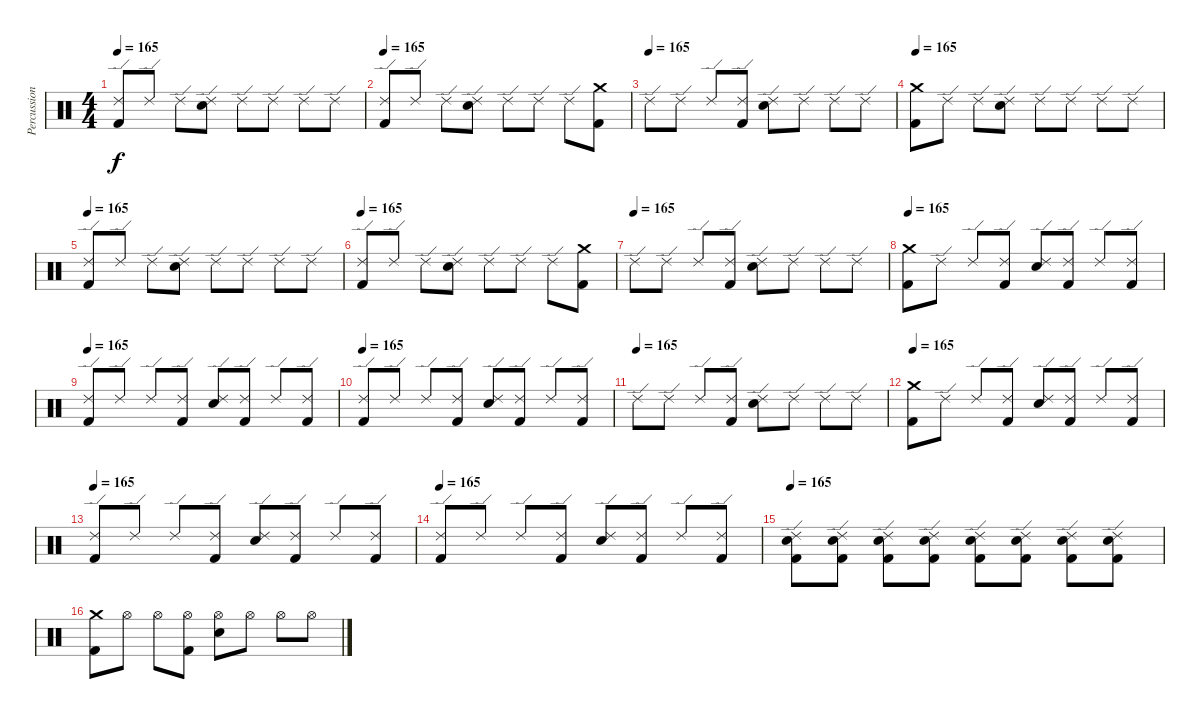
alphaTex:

\track ("Percussion" "Percussion") {instrument percussion}
\staff {score}
\articulation defaults
\ts (4 4)
\tempo 165
\clef neutral
\ks c
("Ride (edge) 2" "Kick (hit) 2").8{dy f} "Ride (edge) 2".8 "Ride (edge) 2".8 ("Ride (edge) 2" "Electric Snare (hit)").8 "Ride (edge) 2".8 "Ride (edge) 2".8 "Ride (edge) 2".8 "Ride (edge) 2".8 |
\tempo 165
("Ride (edge) 2" "Kick (hit) 2").8 "Ride (edge) 2".8 "Ride (edge) 2".8 ("Ride (edge) 2" "Electric Snare (hit)").8 "Ride (edge) 2".8 "Ride (edge) 2".8 "Ride (edge) 2".8 ("Crash medium (hit)" "Kick (hit) 2").8 |
\tempo (165)
"Ride (edge) 2".8 "Ride (edge) 2".8 "Ride (edge) 2".8 ("Ride (edge) 2" "Kick (hit) 2").8 ("Ride (edge) 2" "Electric Snare (hit)").8 "Ride (edge) 2".8 "Ride (edge) 2".8 "Ride (edge) 2".8 |
\tempo 165
("Crash medium (hit)" "Kick (hit) 2").8 "Ride (edge) 2".8 "Ride (edge) 2".8 ("Ride (edge) 2" "Electric Snare (hit)").8 "Ride (edge) 2".8 "Ride (edge) 2".8 "Ride (edge) 2".8 "Ride (edge) 2".8 |
\tempo 165
("Ride (edge) 2" "Kick (hit) 2").8 "Ride (edge) 2".8 "Ride (edge) 2".8 ("Ride (edge) 2" "Electric Snare (hit)").8 "Ride (edge) 2".8 "Ride (edge) 2".8 "Ride (edge) 2".8 "Ride (edge) 2".8 |
\tempo 165
("Ride (edge) 2" "Kick (hit) 2").8 "Ride (edge) 2".8 "Ride (edge) 2".8 ("Ride (edge) 2" "Electric Snare (hit)").8 "Ride (edge) 2".8 "Ride (edge) 2".8 "Ride (edge) 2".8 ("Crash medium (hit)" "Kick (hit) 2").8 |
\tempo (165)
"Ride (edge) 2".8 "Ride (edge) 2".8 "Ride (edge) 2".8 ("Ride (edge) 2" "Kick (hit) 2").8 ("Ride (edge) 2" "Electric Snare (hit)").8 "Ride (edge) 2".8 "Ride (edge) 2".8 "Ride (edge) 2".8 |
\tempo 165
("Crash medium (hit)" "Kick (hit) 2").8 "Ride (edge) 2".8 "Ride (edge) 2".8 ("Ride (edge) 2" "Kick (hit) 2").8 ("Ride (edge) 2" "Electric Snare (hit)").8 ("Ride (edge) 2" "Kick (hit) 2").8 "Ride (edge) 2".8 ("Ride (edge) 2" "Kick (hit) 2").8 |
\tempo 165
("Ride (edge) 2" "Kick (hit) 2").8 "Ride (edge) 2".8 "Ride (edge) 2".8 ("Ride (edge) 2" "Kick (hit) 2").8 ("Ride (edge) 2" "Electric Snare (hit)").8 ("Ride (edge) 2" "Kick (hit) 2").8 "Ride (edge) 2".8 ("Ride (edge) 2" "Kick (hit) 2").8 |
\tempo 165
("Ride (edge) 2" "Kick (hit) 2").8 "Ride (edge) 2".8 "Ride (edge) 2".8 ("Ride (edge) 2" "Kick (hit) 2").8 ("Ride (edge) 2" "Electric Snare (hit)").8 ("Ride (edge) 2" "Kick (hit) 2").8 "Ride (edge) 2".8 ("Ride (edge) 2" "Kick (hit) 2").8 |
\tempo (165)
"Ride (edge) 2".8 "Ride (edge) 2".8 "Ride (edge) 2".8 ("Ride (edge) 2" "Kick (hit) 2").8 ("Ride (edge) 2" "Electric Snare (hit)").8 "Ride (edge) 2".8 "Ride (edge) 2".8 "Ride (edge) 2".8 |
\tempo 165
("Crash medium (hit)" "Kick (hit) 2").8 "Ride (edge) 2".8 "Ride (edge) 2".8 ("Ride (edge) 2" "Kick (hit) 2").8 ("Ride (edge) 2" "Electric Snare (hit)").8 ("Ride (edge) 2" "Kick (hit) 2").8 "Ride (edge) 2".8 ("Ride (edge) 2" "Kick (hit) 2").8 |
\tempo 165
("Ride (edge) 2" "Kick (hit) 2").8 "Ride (edge) 2".8 "Ride (edge) 2".8 ("Ride (edge) 2" "Kick (hit) 2").8 ("Ride (edge) 2" "Electric Snare (hit)").8 ("Ride (edge) 2" "Kick (hit) 2").8 "Ride (edge) 2".8 ("Ride (edge) 2" "Kick (hit) 2").8 |
\tempo 165
("Ride (edge) 2" "Kick (hit) 2").8 "Ride (edge) 2".8 "Ride (edge) 2".8 ("Ride (edge) 2" "Kick (hit) 2").8 ("Ride (edge) 2" "Electric Snare (hit)").8 ("Ride (edge) 2" "Kick (hit) 2").8 "Ride (edge) 2".8 ("Ride (edge) 2" "Kick (hit) 2").8 |
\tempo 165
("Ride (edge) 2" "Electric Snare (hit)" "Kick (hit) 2").8 ("Ride (edge) 2" "Electric Snare (hit)" "Kick (hit) 2").8 ("Ride (edge) 2" "Electric Snare (hit)" "Kick (hit) 2").8 ("Ride (edge) 2" "Electric Snare (hit)" "Kick (hit) 2").8 ("Ride (edge) 2" "Electric Snare (hit)" "Kick (hit) 2").8 ("Ride (edge) 2" "Electric Snare (hit)" "Kick (hit) 2").8 ("Ride (edge) 2" "Electric Snare (hit)" "Kick (hit) 2").8 ("Ride (edge) 2" "Electric Snare (hit)" "Kick (hit) 2").8 |
("Crash medium (hit)" "Kick (hit) 2").8 "Hi-Hat (open)".8 "Hi-Hat (open)".8 ("Hi-Hat (open)" "Kick (hit) 2").8 ("Hi-Hat (open)" "Electric Snare (hit)").8 "Hi-Hat (open)".8 "Hi-Hat (open)".8 "Hi-Hat (open)".8
